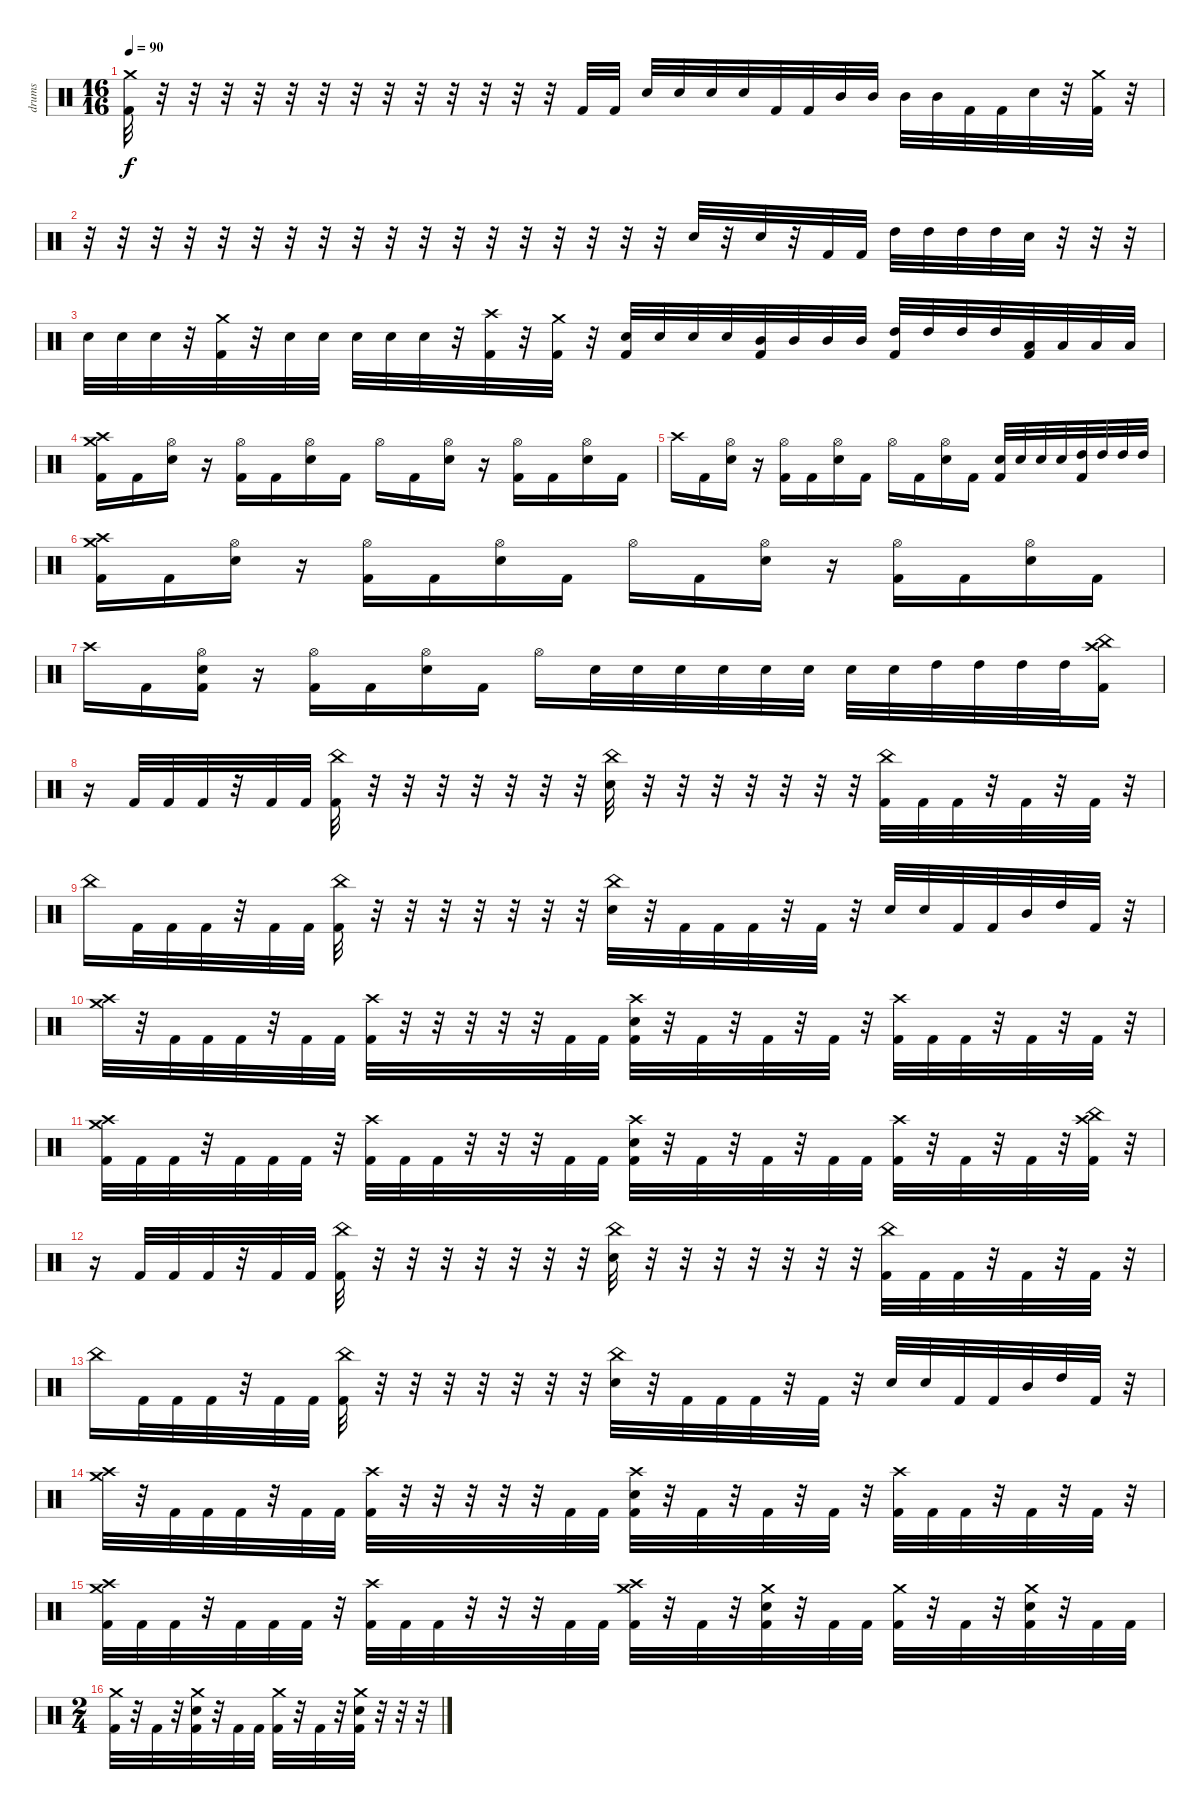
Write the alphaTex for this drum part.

\track ("drums" "drums") {instrument percussion}
\staff {score}
\articulation defaults
\ts (16 16)
\tempo 90
\clef neutral
\ks c
("Crash medium (hit)" "Kick (hit) 2").32{dy f} r.32 r.32 r.32 r.32 r.32 r.32 r.32 r.32 r.32 r.32 r.32 r.32 r.32 "Kick (hit) 2".32 "Kick (hit) 2".32 "Electric Snare (hit)".32 "Electric Snare (hit)".32 "Electric Snare (hit)".32 "Electric Snare (hit)".32 "Kick (hit) 2".32 "Kick (hit) 2".32 "Mid Tom (hit)".32 "Mid Tom (hit)".32 "Mid Tom (hit)".32 "Mid Tom (hit)".32 "Kick (hit) 2".32 "Kick (hit) 2".32 "Electric Snare (hit)".32 r.32 ("Crash medium (hit)" "Kick (hit) 2").32 r.32 |
r.32 r.32 r.32 r.32 r.32 r.32 r.32 r.32 r.32 r.32 r.32 r.32 r.32 r.32 r.32 r.32 r.32 r.32 "Electric Snare (hit)".32 r.32 "Electric Snare (hit)".32 r.32 "Kick (hit) 2".32 "Kick (hit) 2".32 "High Tom (hit)".32 "High Tom (hit)".32 "High Tom (hit)".32 "High Tom (hit)".32 "Electric Snare (hit)".32 r.32 r.32 r.32 |
"Electric Snare (hit)".32 "Electric Snare (hit)".32 "Electric Snare (hit)".32 r.32 ("Crash medium (hit)" "Kick (hit) 2").32 r.32 "Electric Snare (hit)".32 "Electric Snare (hit)".32 "Electric Snare (hit)".32 "Electric Snare (hit)".32 "Electric Snare (hit)".32 r.32 ("Crash high (hit)" "Kick (hit) 2").32 r.32 ("Crash medium (hit)" "Kick (hit) 2").32 r.32 ("Electric Snare (hit)" "Kick (hit) 2").32 "Electric Snare (hit)".32 "Electric Snare (hit)".32 "Electric Snare (hit)".32 ("Mid Tom (hit)" "Kick (hit) 2").32 "Mid Tom (hit)".32 "Mid Tom (hit)".32 "Mid Tom (hit)".32 ("High Tom (hit)" "Kick (hit) 2").32 "High Tom (hit)".32 "High Tom (hit)".32 "High Tom (hit)".32 ("Low Floor Tom (hit)" "Kick (hit) 2").32 "Low Floor Tom (hit)".32 "Low Floor Tom (hit)".32 "Low Floor Tom (hit)".32 |
("Crash medium (hit)" "Crash high (hit)" "Kick (hit) 2").16 "Kick (hit) 2".16 ("Hi-Hat (open)" "Electric Snare (hit)").16 r.16 ("Hi-Hat (open)" "Kick (hit) 2").16 "Kick (hit) 2".16 ("Hi-Hat (open)" "Electric Snare (hit)").16 "Kick (hit) 2".16 "Hi-Hat (open)".16 "Kick (hit) 2".16 ("Hi-Hat (open)" "Electric Snare (hit)").16 r.16 ("Hi-Hat (open)" "Kick (hit) 2").16 "Kick (hit) 2".16 ("Hi-Hat (open)" "Electric Snare (hit)").16 "Kick (hit) 2".16 |
"Crash high (hit)".16 "Kick (hit) 2".16 ("Hi-Hat (open)" "Electric Snare (hit)").16 r.16 ("Hi-Hat (open)" "Kick (hit) 2").16 "Kick (hit) 2".16 ("Hi-Hat (open)" "Electric Snare (hit)").16 "Kick (hit) 2".16 "Hi-Hat (open)".16 "Kick (hit) 2".16 ("Hi-Hat (open)" "Electric Snare (hit)").16 "Kick (hit) 2".16 ("Electric Snare (hit)" "Kick (hit) 2").32 "Electric Snare (hit)".32 "Electric Snare (hit)".32 "Electric Snare (hit)".32 ("High Tom (hit)" "Kick (hit) 2").32 "High Tom (hit)".32 "High Tom (hit)".32 "High Tom (hit)".32 |
("Crash medium (hit)" "Crash high (hit)" "Kick (hit) 2").16 "Kick (hit) 2".16 ("Hi-Hat (open)" "Electric Snare (hit)").16 r.16 ("Hi-Hat (open)" "Kick (hit) 2").16 "Kick (hit) 2".16 ("Hi-Hat (open)" "Electric Snare (hit)").16 "Kick (hit) 2".16 "Hi-Hat (open)".16 "Kick (hit) 2".16 ("Hi-Hat (open)" "Electric Snare (hit)").16 r.16 ("Hi-Hat (open)" "Kick (hit) 2").16 "Kick (hit) 2".16 ("Hi-Hat (open)" "Electric Snare (hit)").16 "Kick (hit) 2".16 |
"Crash high (hit)".16 "Kick (hit) 2".16 ("Hi-Hat (open)" "Electric Snare (hit)" "Kick (hit) 2").16 r.16 ("Hi-Hat (open)" "Kick (hit) 2").16 "Kick (hit) 2".16 ("Hi-Hat (open)" "Electric Snare (hit)").16 "Kick (hit) 2".16 "Hi-Hat (open)".16 "Electric Snare (hit)".32 "Electric Snare (hit)".32 "Electric Snare (hit)".32 "Electric Snare (hit)".32 "Electric Snare (hit)".32 "Electric Snare (hit)".32 "Electric Snare (hit)".32 "Electric Snare (hit)".32 "High Tom (hit)".32 "High Tom (hit)".32 "High Tom (hit)".32 "High Tom (hit)".32 ("China (hit)" "Crash high (hit)" "Kick (hit) 2").16 |
r.16 "Kick (hit) 2".32 "Kick (hit) 2".32 "Kick (hit) 2".32 r.32 "Kick (hit) 2".32 "Kick (hit) 2".32 ("China (hit)" "Kick (hit) 2").32 r.32 r.32 r.32 r.32 r.32 r.32 r.32 ("China (hit)" "Electric Snare (hit)").32 r.32 r.32 r.32 r.32 r.32 r.32 r.32 ("China (hit)" "Kick (hit) 2").32 "Kick (hit) 2".32 "Kick (hit) 2".32 r.32 "Kick (hit) 2".32 r.32 "Kick (hit) 2".32 r.32 |
"China (hit)".16 "Kick (hit) 2".32 "Kick (hit) 2".32 "Kick (hit) 2".32 r.32 "Kick (hit) 2".32 "Kick (hit) 2".32 ("China (hit)" "Kick (hit) 2").32 r.32 r.32 r.32 r.32 r.32 r.32 r.32 ("China (hit)" "Electric Snare (hit)").32 r.32 "Kick (hit) 2".32 "Kick (hit) 2".32 "Kick (hit) 2".32 r.32 "Kick (hit) 2".32 r.32 "Electric Snare (hit)".32 "Electric Snare (hit)".32 "Kick (hit) 2".32 "Kick (hit) 2".32 "Mid Tom (hit)".32 "High Tom (hit)".32 "Kick (hit) 2".32 r.32 |
("Crash medium (hit)" "Crash high (hit)").32 r.32 "Kick (hit) 2".32 "Kick (hit) 2".32 "Kick (hit) 2".32 r.32 "Kick (hit) 2".32 "Kick (hit) 2".32 ("Crash high (hit)" "Kick (hit) 2").32 r.32 r.32 r.32 r.32 r.32 "Kick (hit) 2".32 "Kick (hit) 2".32 ("Crash high (hit)" "Electric Snare (hit)" "Kick (hit) 2").32 r.32 "Kick (hit) 2".32 r.32 "Kick (hit) 2".32 r.32 "Kick (hit) 2".32 r.32 ("Crash high (hit)" "Kick (hit) 2").32 "Kick (hit) 2".32 "Kick (hit) 2".32 r.32 "Kick (hit) 2".32 r.32 "Kick (hit) 2".32 r.32 |
("Crash medium (hit)" "Crash high (hit)" "Kick (hit) 2").32 "Kick (hit) 2".32 "Kick (hit) 2".32 r.32 "Kick (hit) 2".32 "Kick (hit) 2".32 "Kick (hit) 2".32 r.32 ("Crash high (hit)" "Kick (hit) 2").32 "Kick (hit) 2".32 "Kick (hit) 2".32 r.32 r.32 r.32 "Kick (hit) 2".32 "Kick (hit) 2".32 ("Crash high (hit)" "Electric Snare (hit)" "Kick (hit) 2").32 r.32 "Kick (hit) 2".32 r.32 "Kick (hit) 2".32 r.32 "Kick (hit) 2".32 "Kick (hit) 2".32 ("Crash high (hit)" "Kick (hit) 2").32 r.32 "Kick (hit) 2".32 r.32 "Kick (hit) 2".32 r.32 ("China (hit)" "Crash high (hit)" "Kick (hit) 2").32 r.32 |
r.16 "Kick (hit) 2".32 "Kick (hit) 2".32 "Kick (hit) 2".32 r.32 "Kick (hit) 2".32 "Kick (hit) 2".32 ("China (hit)" "Kick (hit) 2").32 r.32 r.32 r.32 r.32 r.32 r.32 r.32 ("China (hit)" "Electric Snare (hit)").32 r.32 r.32 r.32 r.32 r.32 r.32 r.32 ("China (hit)" "Kick (hit) 2").32 "Kick (hit) 2".32 "Kick (hit) 2".32 r.32 "Kick (hit) 2".32 r.32 "Kick (hit) 2".32 r.32 |
"China (hit)".16 "Kick (hit) 2".32 "Kick (hit) 2".32 "Kick (hit) 2".32 r.32 "Kick (hit) 2".32 "Kick (hit) 2".32 ("China (hit)" "Kick (hit) 2").32 r.32 r.32 r.32 r.32 r.32 r.32 r.32 ("China (hit)" "Electric Snare (hit)").32 r.32 "Kick (hit) 2".32 "Kick (hit) 2".32 "Kick (hit) 2".32 r.32 "Kick (hit) 2".32 r.32 "Electric Snare (hit)".32 "Electric Snare (hit)".32 "Kick (hit) 2".32 "Kick (hit) 2".32 "Mid Tom (hit)".32 "High Tom (hit)".32 "Kick (hit) 2".32 r.32 |
("Crash medium (hit)" "Crash high (hit)").32 r.32 "Kick (hit) 2".32 "Kick (hit) 2".32 "Kick (hit) 2".32 r.32 "Kick (hit) 2".32 "Kick (hit) 2".32 ("Crash high (hit)" "Kick (hit) 2").32 r.32 r.32 r.32 r.32 r.32 "Kick (hit) 2".32 "Kick (hit) 2".32 ("Crash high (hit)" "Electric Snare (hit)" "Kick (hit) 2").32 r.32 "Kick (hit) 2".32 r.32 "Kick (hit) 2".32 r.32 "Kick (hit) 2".32 r.32 ("Crash high (hit)" "Kick (hit) 2").32 "Kick (hit) 2".32 "Kick (hit) 2".32 r.32 "Kick (hit) 2".32 r.32 "Kick (hit) 2".32 r.32 |
("Crash medium (hit)" "Crash high (hit)" "Kick (hit) 2").32 "Kick (hit) 2".32 "Kick (hit) 2".32 r.32 "Kick (hit) 2".32 "Kick (hit) 2".32 "Kick (hit) 2".32 r.32 ("Crash high (hit)" "Kick (hit) 2").32 "Kick (hit) 2".32 "Kick (hit) 2".32 r.32 r.32 r.32 "Kick (hit) 2".32 "Kick (hit) 2".32 ("Crash high (hit)" "Crash medium (hit)" "Kick (hit) 2").32 r.32 "Kick (hit) 2".32 r.32 ("Crash medium (hit)" "Electric Snare (hit)" "Kick (hit) 2").32 r.32 "Kick (hit) 2".32 "Kick (hit) 2".32 ("Crash medium (hit)" "Kick (hit) 2").32 r.32 "Kick (hit) 2".32 r.32 ("Crash medium (hit)" "Electric Snare (hit)" "Kick (hit) 2").32 r.32 "Kick (hit) 2".32 "Kick (hit) 2".32 |
\ts (2 4)
("Crash medium (hit)" "Kick (hit) 2").32 r.32 "Kick (hit) 2".32 r.32 ("Crash medium (hit)" "Electric Snare (hit)" "Kick (hit) 2").32 r.32 "Kick (hit) 2".32 "Kick (hit) 2".32 ("Crash medium (hit)" "Kick (hit) 2").32 r.32 "Kick (hit) 2".32 r.32 ("Crash medium (hit)" "Electric Snare (hit)" "Kick (hit) 2").32 r.32 r.32 r.32
